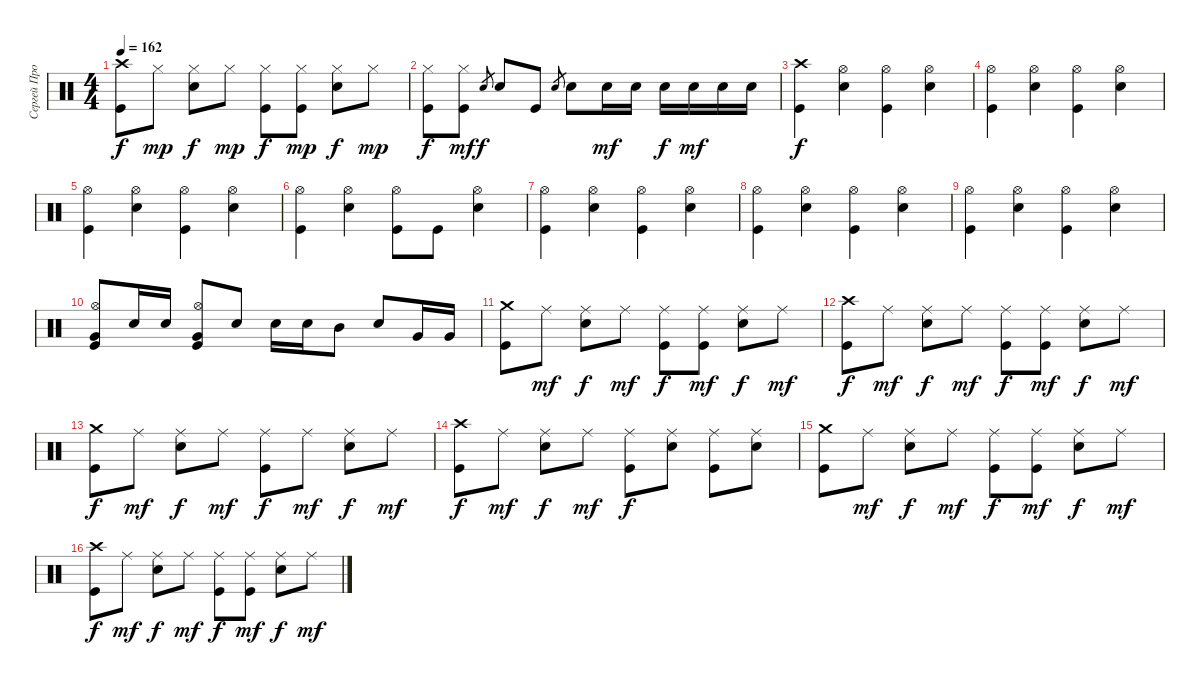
\track ("Сергей Прокофьев" "Сергей Про") {instrument percussion}
\staff {score}
\articulation defaults
\ts (4 4)
\tempo 162
\clef neutral
\ks c
("Crash high (hit)" "Kick (hit)").8{dy f} "Hi-Hat (closed)".8{dy mp} ("Hi-Hat (closed)" "Electric Snare (hit)").8{dy f} "Hi-Hat (closed)".8{dy mp} ("Hi-Hat (closed)" "Kick (hit)").8{dy f} ("Hi-Hat (closed)" "Kick (hit)").8{dy mp} ("Hi-Hat (closed)" "Electric Snare (hit)").8{dy f} "Hi-Hat (closed)".8{dy mp} |
("Hi-Hat (closed)" "Kick (hit)").8{dy f} ("Hi-Hat (closed)" "Kick (hit)").8{dy mf} "Electric Snare (hit)".8{gr dy f} "Electric Snare (hit)".8 "Kick (hit)".8 "Electric Snare (hit)".8{gr} "Electric Snare (hit)".8 "Electric Snare (hit)".16{dy mf} "Electric Snare (hit)".16 "Electric Snare (hit)".16{dy f} "Electric Snare (hit)".16{dy mf} "Electric Snare (hit)".16 "Electric Snare (hit)".16 |
("Crash high (hit)" "Kick (hit)").4{dy f} ("Hi-Hat (open)" "Electric Snare (hit)").4 ("Hi-Hat (open)" "Kick (hit)").4 ("Hi-Hat (open)" "Electric Snare (hit)").4 |
("Hi-Hat (open)" "Kick (hit)").4 ("Hi-Hat (open)" "Electric Snare (hit)").4 ("Hi-Hat (open)" "Kick (hit)").4 ("Hi-Hat (open)" "Electric Snare (hit)").4 |
("Hi-Hat (open)" "Kick (hit)").4 ("Hi-Hat (open)" "Electric Snare (hit)").4 ("Hi-Hat (open)" "Kick (hit)").4 ("Hi-Hat (open)" "Electric Snare (hit)").4 |
("Hi-Hat (open)" "Kick (hit)").4 ("Hi-Hat (open)" "Electric Snare (hit)").4 ("Hi-Hat (open)" "Kick (hit)").8 "Kick (hit)".8 ("Hi-Hat (open)" "Electric Snare (hit)").4 |
("Hi-Hat (open)" "Kick (hit)").4 ("Hi-Hat (open)" "Electric Snare (hit)").4 ("Hi-Hat (open)" "Kick (hit)").4 ("Hi-Hat (open)" "Electric Snare (hit)").4 |
("Hi-Hat (open)" "Kick (hit)").4 ("Hi-Hat (open)" "Electric Snare (hit)").4 ("Hi-Hat (open)" "Kick (hit)").4 ("Hi-Hat (open)" "Electric Snare (hit)").4 |
("Hi-Hat (open)" "Kick (hit)").4 ("Hi-Hat (open)" "Electric Snare (hit)").4 ("Hi-Hat (open)" "Kick (hit)").4 ("Hi-Hat (open)" "Electric Snare (hit)").4 |
("Hi-Hat (open)" "Very Low Tom (hit)" "Kick (hit)").8 "Electric Snare (hit)".16 "Electric Snare (hit)".16 ("Hi-Hat (open)" "Very Low Tom (hit)" "Kick (hit)").8 "Electric Snare (hit)".8 "Electric Snare (hit)".16 "Electric Snare (hit)".16 "Mid Tom (hit)".8 "Electric Snare (hit)".8 "Very Low Tom (hit)".16 "Very Low Tom (hit)".16 |
("Crash medium (hit)" "Kick (hit)").8 "Ride (middle)".8{dy mf} ("Ride (middle)" "Electric Snare (hit)").8{dy f} "Ride (middle)".8{dy mf} ("Ride (middle)" "Kick (hit)").8{dy f} ("Ride (middle)" "Kick (hit)").8{dy mf} ("Ride (middle)" "Electric Snare (hit)").8{dy f} "Ride (middle)".8{dy mf} |
("Crash high (hit)" "Kick (hit)").8{dy f} "Ride (middle)".8{dy mf} ("Ride (middle)" "Electric Snare (hit)").8{dy f} "Ride (middle)".8{dy mf} ("Ride (middle)" "Kick (hit)").8{dy f} ("Ride (middle)" "Kick (hit)").8{dy mf} ("Ride (middle)" "Electric Snare (hit)").8{dy f} "Ride (middle)".8{dy mf} |
("Crash medium (hit)" "Kick (hit)").8{dy f} "Ride (middle)".8{dy mf} ("Ride (middle)" "Electric Snare (hit)").8{dy f} "Ride (middle)".8{dy mf} ("Ride (middle)" "Kick (hit)").8{dy f} "Ride (middle)".8{dy mf} ("Ride (middle)" "Electric Snare (hit)").8{dy f} "Ride (middle)".8{dy mf} |
("Crash high (hit)" "Kick (hit)").8{dy f} "Ride (middle)".8{dy mf} ("Ride (middle)" "Electric Snare (hit)").8{dy f} "Ride (middle)".8{dy mf} ("Ride (middle)" "Kick (hit)").8{dy f} ("Ride (middle)" "Electric Snare (hit)").8 ("Ride (middle)" "Kick (hit)").8 ("Ride (middle)" "Electric Snare (hit)").8 |
("Crash medium (hit)" "Kick (hit)").8 "Ride (middle)".8{dy mf} ("Ride (middle)" "Electric Snare (hit)").8{dy f} "Ride (middle)".8{dy mf} ("Ride (middle)" "Kick (hit)").8{dy f} ("Ride (middle)" "Kick (hit)").8{dy mf} ("Ride (middle)" "Electric Snare (hit)").8{dy f} "Ride (middle)".8{dy mf} |
("Crash high (hit)" "Kick (hit)").8{dy f} "Ride (middle)".8{dy mf} ("Ride (middle)" "Electric Snare (hit)").8{dy f} "Ride (middle)".8{dy mf} ("Ride (middle)" "Kick (hit)").8{dy f} ("Ride (middle)" "Kick (hit)").8{dy mf} ("Ride (middle)" "Electric Snare (hit)").8{dy f} "Ride (middle)".8{dy mf}
